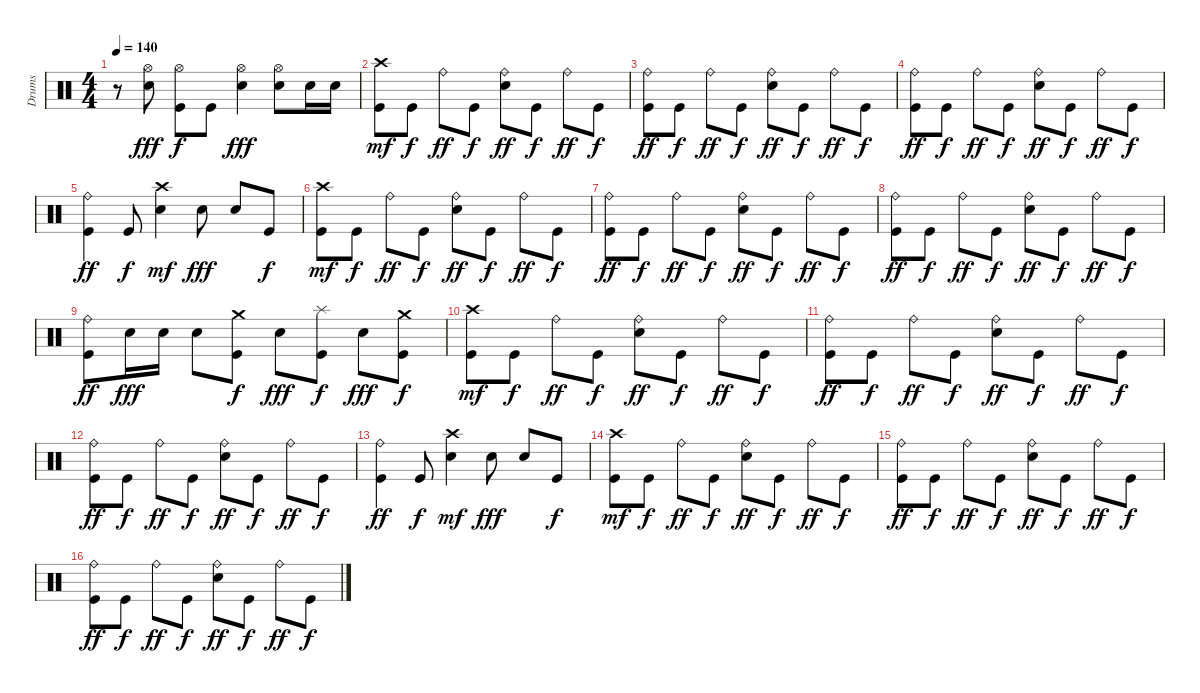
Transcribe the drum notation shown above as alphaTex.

\track ("Drums" "Drums") {instrument percussion}
\staff {score}
\articulation defaults
\ts (4 4)
\tempo 140
\clef neutral
\ks c
r.8{dy fff} ("Electric Snare (hit)" "Hi-Hat (open)").8 ("Kick (hit)" "Hi-Hat (open)").8{dy f} "Kick (hit)".8 ("Electric Snare (hit)" "Hi-Hat (open)").4{dy fff} ("Electric Snare (hit)" "Hi-Hat (open)").8 "Electric Snare (hit)".16 "Electric Snare (hit)".16 |
("Kick (hit)" "Crash high (hit)").8{dy mf} "Kick (hit)".8{dy f} "Ride (bell)".8{dy ff} "Kick (hit)".8{dy f} ("Electric Snare (hit)" "Ride (bell)").8{dy ff} "Kick (hit)".8{dy f} "Ride (bell)".8{dy ff} "Kick (hit)".8{dy f} |
("Kick (hit)" "Ride (bell)").8{dy ff} "Kick (hit)".8{dy f} "Ride (bell)".8{dy ff} "Kick (hit)".8{dy f} ("Electric Snare (hit)" "Ride (bell)").8{dy ff} "Kick (hit)".8{dy f} "Ride (bell)".8{dy ff} "Kick (hit)".8{dy f} |
("Kick (hit)" "Ride (bell)").8{dy ff} "Kick (hit)".8{dy f} "Ride (bell)".8{dy ff} "Kick (hit)".8{dy f} ("Electric Snare (hit)" "Ride (bell)").8{dy ff} "Kick (hit)".8{dy f} "Ride (bell)".8{dy ff} "Kick (hit)".8{dy f} |
("Ride (bell)" "Kick (hit)").4{dy ff} "Kick (hit)".8{dy f} ("Electric Snare (hit)" "Crash high (hit)").4{dy mf} "Electric Snare (hit)".8{dy fff} "Electric Snare (hit)".8 "Kick (hit)".8{dy f} |
("Kick (hit)" "Crash high (hit)").8{dy mf} "Kick (hit)".8{dy f} "Ride (bell)".8{dy ff} "Kick (hit)".8{dy f} ("Electric Snare (hit)" "Ride (bell)").8{dy ff} "Kick (hit)".8{dy f} "Ride (bell)".8{dy ff} "Kick (hit)".8{dy f} |
("Kick (hit)" "Ride (bell)").8{dy ff} "Kick (hit)".8{dy f} "Ride (bell)".8{dy ff} "Kick (hit)".8{dy f} ("Electric Snare (hit)" "Ride (bell)").8{dy ff} "Kick (hit)".8{dy f} "Ride (bell)".8{dy ff} "Kick (hit)".8{dy f} |
("Kick (hit)" "Ride (bell)").8{dy ff} "Kick (hit)".8{dy f} "Ride (bell)".8{dy ff} "Kick (hit)".8{dy f} ("Electric Snare (hit)" "Ride (bell)").8{dy ff} "Kick (hit)".8{dy f} "Ride (bell)".8{dy ff} "Kick (hit)".8{dy f} |
("Kick (hit)" "Ride (bell)").8{dy ff} "Electric Snare (hit)".16{dy fff} "Electric Snare (hit)".16 "Electric Snare (hit)".8 ("Crash medium (hit)" "Kick (hit)").8{dy f} "Electric Snare (hit)".8{dy fff} ("Splash (hit)" "Kick (hit)").8{dy f} "Electric Snare (hit)".8{dy fff} ("Crash medium (hit)" "Kick (hit)").8{dy f} |
("Kick (hit)" "Crash high (hit)").8{dy mf} "Kick (hit)".8{dy f} "Ride (bell)".8{dy ff} "Kick (hit)".8{dy f} ("Electric Snare (hit)" "Ride (bell)").8{dy ff} "Kick (hit)".8{dy f} "Ride (bell)".8{dy ff} "Kick (hit)".8{dy f} |
("Kick (hit)" "Ride (bell)").8{dy ff} "Kick (hit)".8{dy f} "Ride (bell)".8{dy ff} "Kick (hit)".8{dy f} ("Electric Snare (hit)" "Ride (bell)").8{dy ff} "Kick (hit)".8{dy f} "Ride (bell)".8{dy ff} "Kick (hit)".8{dy f} |
("Kick (hit)" "Ride (bell)").8{dy ff} "Kick (hit)".8{dy f} "Ride (bell)".8{dy ff} "Kick (hit)".8{dy f} ("Electric Snare (hit)" "Ride (bell)").8{dy ff} "Kick (hit)".8{dy f} "Ride (bell)".8{dy ff} "Kick (hit)".8{dy f} |
("Ride (bell)" "Kick (hit)").4{dy ff} "Kick (hit)".8{dy f} ("Electric Snare (hit)" "Crash high (hit)").4{dy mf} "Electric Snare (hit)".8{dy fff} "Electric Snare (hit)".8 "Kick (hit)".8{dy f} |
("Kick (hit)" "Crash high (hit)").8{dy mf} "Kick (hit)".8{dy f} "Ride (bell)".8{dy ff} "Kick (hit)".8{dy f} ("Electric Snare (hit)" "Ride (bell)").8{dy ff} "Kick (hit)".8{dy f} "Ride (bell)".8{dy ff} "Kick (hit)".8{dy f} |
("Kick (hit)" "Ride (bell)").8{dy ff} "Kick (hit)".8{dy f} "Ride (bell)".8{dy ff} "Kick (hit)".8{dy f} ("Electric Snare (hit)" "Ride (bell)").8{dy ff} "Kick (hit)".8{dy f} "Ride (bell)".8{dy ff} "Kick (hit)".8{dy f} |
("Kick (hit)" "Ride (bell)").8{dy ff} "Kick (hit)".8{dy f} "Ride (bell)".8{dy ff} "Kick (hit)".8{dy f} ("Electric Snare (hit)" "Ride (bell)").8{dy ff} "Kick (hit)".8{dy f} "Ride (bell)".8{dy ff} "Kick (hit)".8{dy f}
